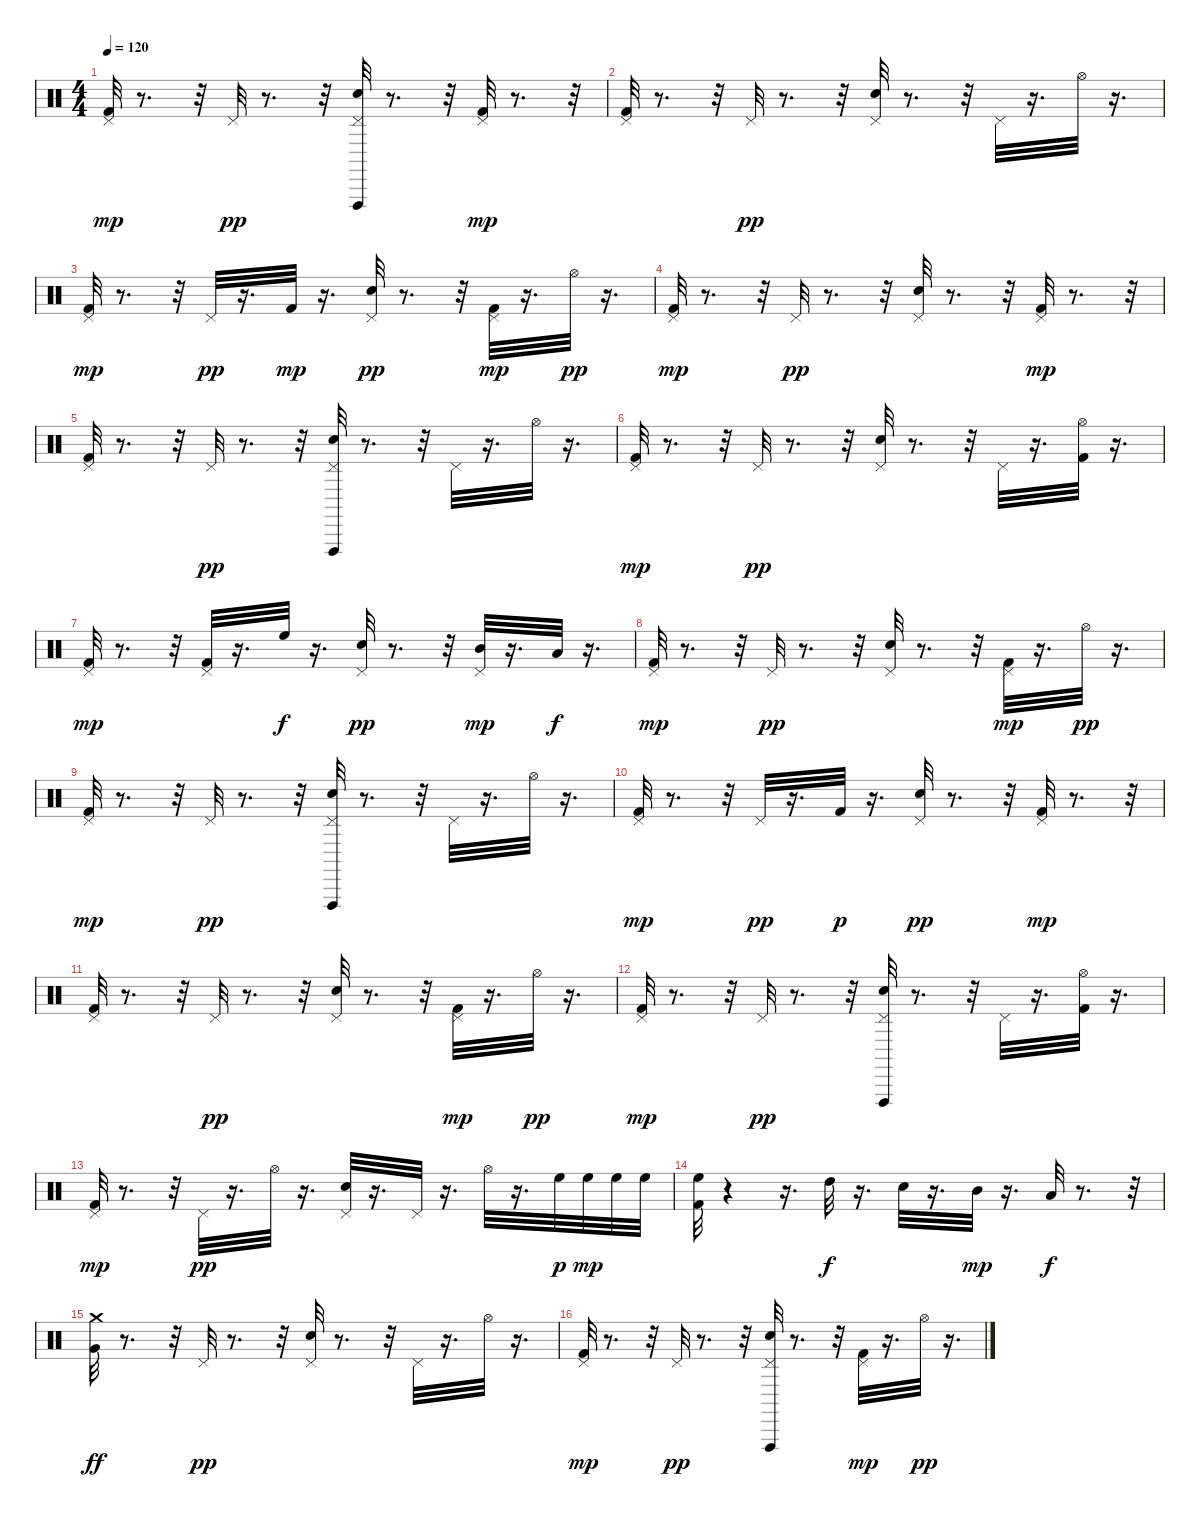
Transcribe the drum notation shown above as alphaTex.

\track "" {instrument percussion}
\staff {score}
\articulation defaults
\ts (4 4)
\tempo 120
\clef neutral
\ks c
("Pedal Hi-Hat (hit)" "Kick (hit) 2").32{dy mp} r.8{d} r.32 "Pedal Hi-Hat (hit)".32{dy pp} r.8{d} r.32 ("Vibraslap (hit)" "Pedal Hi-Hat (hit)" "Snare (hit) 2").32 r.8{d} r.32 ("Pedal Hi-Hat (hit)" "Kick (hit) 2").32{dy mp} r.8{d} r.32 |
("Pedal Hi-Hat (hit)" "Kick (hit) 2").32 r.8{d} r.32 "Pedal Hi-Hat (hit)".32{dy pp} r.8{d} r.32 ("Pedal Hi-Hat (hit)" "Snare (hit) 2").32 r.8{d} r.32 "Pedal Hi-Hat (hit)".32 r.16{d} "Hi-Hat (open)".32 r.16{d} |
("Pedal Hi-Hat (hit)" "Kick (hit) 2").32{dy mp} r.8{d} r.32 "Pedal Hi-Hat (hit)".32{dy pp} r.16{d} "Kick (hit) 2".32{dy mp} r.16{d} ("Pedal Hi-Hat (hit)" "Snare (hit) 2").32{dy pp} r.8{d} r.32 ("Pedal Hi-Hat (hit)" "Kick (hit) 2").32{dy mp} r.16{d} "Hi-Hat (open)".32{dy pp} r.16{d} |
("Pedal Hi-Hat (hit)" "Kick (hit) 2").32{dy mp} r.8{d} r.32 "Pedal Hi-Hat (hit)".32{dy pp} r.8{d} r.32 ("Pedal Hi-Hat (hit)" "Snare (hit) 2").32 r.8{d} r.32 ("Pedal Hi-Hat (hit)" "Kick (hit) 2").32{dy mp} r.8{d} r.32 |
("Pedal Hi-Hat (hit)" "Kick (hit) 2").32 r.8{d} r.32 "Pedal Hi-Hat (hit)".32{dy pp} r.8{d} r.32 ("Vibraslap (hit)" "Pedal Hi-Hat (hit)" "Snare (hit) 2").32 r.8{d} r.32 "Pedal Hi-Hat (hit)".32 r.16{d} "Hi-Hat (open)".32 r.16{d} |
("Pedal Hi-Hat (hit)" "Kick (hit) 2").32{dy mp} r.8{d} r.32 "Pedal Hi-Hat (hit)".32{dy pp} r.8{d} r.32 ("Pedal Hi-Hat (hit)" "Snare (hit) 2").32 r.8{d} r.32 "Pedal Hi-Hat (hit)".32 r.16{d} ("Kick (hit) 2" "Hi-Hat (open)").32 r.16{d} |
("Pedal Hi-Hat (hit)" "Kick (hit) 2").32{dy mp} r.8{d} r.32 ("Pedal Hi-Hat (hit)" "Kick (hit) 2").32 r.16{d} "High Floor Tom (hit)".32{dy f} r.16{d} ("Pedal Hi-Hat (hit)" "Snare (hit) 2").32{dy pp} r.8{d} r.32 ("Pedal Hi-Hat (hit)" "Mid Tom (hit)").32{dy mp} r.16{d} "Low Tom (hit)".32{dy f} r.16{d} |
("Pedal Hi-Hat (hit)" "Kick (hit) 2").32{dy mp} r.8{d} r.32 "Pedal Hi-Hat (hit)".32{dy pp} r.8{d} r.32 ("Pedal Hi-Hat (hit)" "Snare (hit) 2").32 r.8{d} r.32 ("Pedal Hi-Hat (hit)" "Kick (hit) 2").32{dy mp} r.16{d} "Hi-Hat (open)".32{dy pp} r.16{d} |
("Pedal Hi-Hat (hit)" "Kick (hit) 2").32{dy mp} r.8{d} r.32 "Pedal Hi-Hat (hit)".32{dy pp} r.8{d} r.32 ("Vibraslap (hit)" "Pedal Hi-Hat (hit)" "Snare (hit) 2").32 r.8{d} r.32 "Pedal Hi-Hat (hit)".32 r.16{d} "Hi-Hat (open)".32 r.16{d} |
("Pedal Hi-Hat (hit)" "Kick (hit) 2").32{dy mp} r.8{d} r.32 "Pedal Hi-Hat (hit)".32{dy pp} r.16{d} "Kick (hit) 2".32{dy p} r.16{d} ("Pedal Hi-Hat (hit)" "Snare (hit) 2").32{dy pp} r.8{d} r.32 ("Pedal Hi-Hat (hit)" "Kick (hit) 2").32{dy mp} r.8{d} r.32 |
("Pedal Hi-Hat (hit)" "Kick (hit) 2").32 r.8{d} r.32 "Pedal Hi-Hat (hit)".32{dy pp} r.8{d} r.32 ("Pedal Hi-Hat (hit)" "Snare (hit) 2").32 r.8{d} r.32 ("Pedal Hi-Hat (hit)" "Kick (hit) 2").32{dy mp} r.16{d} "Hi-Hat (open)".32{dy pp} r.16{d} |
("Pedal Hi-Hat (hit)" "Kick (hit) 2").32{dy mp} r.8{d} r.32 "Pedal Hi-Hat (hit)".32{dy pp} r.8{d} r.32 ("Vibraslap (hit)" "Pedal Hi-Hat (hit)" "Snare (hit) 2").32 r.8{d} r.32 "Pedal Hi-Hat (hit)".32 r.16{d} ("Kick (hit) 2" "Hi-Hat (open)").32 r.16{d} |
("Pedal Hi-Hat (hit)" "Kick (hit) 2").32{dy mp} r.8{d} r.32 "Pedal Hi-Hat (hit)".32{dy pp} r.16{d} "Hi-Hat (open)".32 r.16{d} ("Pedal Hi-Hat (hit)" "Snare (hit) 2").32 r.16{d} "Pedal Hi-Hat (hit)".32 r.16{d} "Hi-Hat (open)".32 r.16{d} "High Floor Tom (hit)".32{dy p} "High Floor Tom (hit)".32{dy mp} "High Floor Tom (hit)".32 "High Floor Tom (hit)".32 |
("Kick (hit) 2" "High Floor Tom (hit)").32 r.4 r.16{d} "High Tom (hit)".32{dy f} r.16{d} "Snare (hit) 2".32 r.16{d} "Mid Tom (hit)".32{dy mp} r.16{d} "Low Tom (hit)".32{dy f} r.8{d} r.32 |
("Crash medium (hit)" "Very Low Tom (hit)").32{dy ff} r.8{d} r.32 "Pedal Hi-Hat (hit)".32{dy pp} r.8{d} r.32 ("Pedal Hi-Hat (hit)" "Snare (hit) 2").32 r.8{d} r.32 "Pedal Hi-Hat (hit)".32 r.16{d} "Hi-Hat (open)".32 r.16{d} |
("Pedal Hi-Hat (hit)" "Kick (hit) 2").32{dy mp} r.8{d} r.32 "Pedal Hi-Hat (hit)".32{dy pp} r.8{d} r.32 ("Vibraslap (hit)" "Pedal Hi-Hat (hit)" "Snare (hit) 2").32 r.8{d} r.32 ("Pedal Hi-Hat (hit)" "Kick (hit) 2").32{dy mp} r.16{d} "Hi-Hat (open)".32{dy pp} r.16{d}
